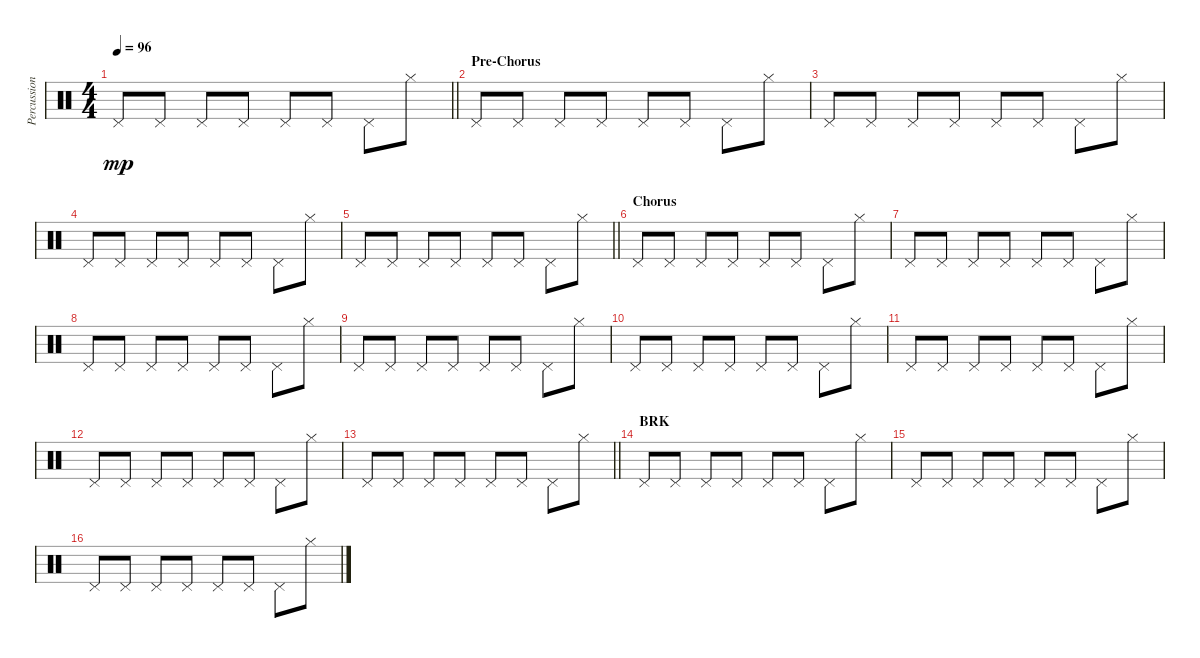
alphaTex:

\track ("Percussion" "Percussion") {instrument percussion}
\staff {score}
\articulation defaults
\ts (4 4)
\tempo 96
\clef neutral
\barLineRight lightlight
\ks c "Pedal Hi-Hat (hit)".8{dy mp} "Pedal Hi-Hat (hit)".8 "Pedal Hi-Hat (hit)".8 "Pedal Hi-Hat (hit)".8 "Pedal Hi-Hat (hit)".8 "Pedal Hi-Hat (hit)".8 "Pedal Hi-Hat (hit)".8 "Hi-Hat (closed)".8
|
\section ("" "Pre-Chorus")
"Pedal Hi-Hat (hit)".8 "Pedal Hi-Hat (hit)".8 "Pedal Hi-Hat (hit)".8 "Pedal Hi-Hat (hit)".8 "Pedal Hi-Hat (hit)".8 "Pedal Hi-Hat (hit)".8 "Pedal Hi-Hat (hit)".8 "Hi-Hat (closed)".8 |
"Pedal Hi-Hat (hit)".8 "Pedal Hi-Hat (hit)".8 "Pedal Hi-Hat (hit)".8 "Pedal Hi-Hat (hit)".8 "Pedal Hi-Hat (hit)".8 "Pedal Hi-Hat (hit)".8 "Pedal Hi-Hat (hit)".8 "Hi-Hat (closed)".8 |
"Pedal Hi-Hat (hit)".8 "Pedal Hi-Hat (hit)".8 "Pedal Hi-Hat (hit)".8 "Pedal Hi-Hat (hit)".8 "Pedal Hi-Hat (hit)".8 "Pedal Hi-Hat (hit)".8 "Pedal Hi-Hat (hit)".8 "Hi-Hat (closed)".8 |
\barLineRight lightlight "Pedal Hi-Hat (hit)".8 "Pedal Hi-Hat (hit)".8 "Pedal Hi-Hat (hit)".8 "Pedal Hi-Hat (hit)".8 "Pedal Hi-Hat (hit)".8 "Pedal Hi-Hat (hit)".8 "Pedal Hi-Hat (hit)".8 "Hi-Hat (closed)".8
|
\section ("" "Chorus")
"Pedal Hi-Hat (hit)".8 "Pedal Hi-Hat (hit)".8 "Pedal Hi-Hat (hit)".8 "Pedal Hi-Hat (hit)".8 "Pedal Hi-Hat (hit)".8 "Pedal Hi-Hat (hit)".8 "Pedal Hi-Hat (hit)".8 "Hi-Hat (closed)".8 |
"Pedal Hi-Hat (hit)".8 "Pedal Hi-Hat (hit)".8 "Pedal Hi-Hat (hit)".8 "Pedal Hi-Hat (hit)".8 "Pedal Hi-Hat (hit)".8 "Pedal Hi-Hat (hit)".8 "Pedal Hi-Hat (hit)".8 "Hi-Hat (closed)".8 |
"Pedal Hi-Hat (hit)".8 "Pedal Hi-Hat (hit)".8 "Pedal Hi-Hat (hit)".8 "Pedal Hi-Hat (hit)".8 "Pedal Hi-Hat (hit)".8 "Pedal Hi-Hat (hit)".8 "Pedal Hi-Hat (hit)".8 "Hi-Hat (closed)".8 |
"Pedal Hi-Hat (hit)".8 "Pedal Hi-Hat (hit)".8 "Pedal Hi-Hat (hit)".8 "Pedal Hi-Hat (hit)".8 "Pedal Hi-Hat (hit)".8 "Pedal Hi-Hat (hit)".8 "Pedal Hi-Hat (hit)".8 "Hi-Hat (closed)".8 |
"Pedal Hi-Hat (hit)".8 "Pedal Hi-Hat (hit)".8 "Pedal Hi-Hat (hit)".8 "Pedal Hi-Hat (hit)".8 "Pedal Hi-Hat (hit)".8 "Pedal Hi-Hat (hit)".8 "Pedal Hi-Hat (hit)".8 "Hi-Hat (closed)".8 |
"Pedal Hi-Hat (hit)".8 "Pedal Hi-Hat (hit)".8 "Pedal Hi-Hat (hit)".8 "Pedal Hi-Hat (hit)".8 "Pedal Hi-Hat (hit)".8 "Pedal Hi-Hat (hit)".8 "Pedal Hi-Hat (hit)".8 "Hi-Hat (closed)".8 |
"Pedal Hi-Hat (hit)".8 "Pedal Hi-Hat (hit)".8 "Pedal Hi-Hat (hit)".8 "Pedal Hi-Hat (hit)".8 "Pedal Hi-Hat (hit)".8 "Pedal Hi-Hat (hit)".8 "Pedal Hi-Hat (hit)".8 "Hi-Hat (closed)".8 |
\barLineRight lightlight "Pedal Hi-Hat (hit)".8 "Pedal Hi-Hat (hit)".8 "Pedal Hi-Hat (hit)".8 "Pedal Hi-Hat (hit)".8 "Pedal Hi-Hat (hit)".8 "Pedal Hi-Hat (hit)".8 "Pedal Hi-Hat (hit)".8 "Hi-Hat (closed)".8
|
\section ("" "BRK")
"Pedal Hi-Hat (hit)".8 "Pedal Hi-Hat (hit)".8 "Pedal Hi-Hat (hit)".8 "Pedal Hi-Hat (hit)".8 "Pedal Hi-Hat (hit)".8 "Pedal Hi-Hat (hit)".8 "Pedal Hi-Hat (hit)".8 "Hi-Hat (closed)".8 |
"Pedal Hi-Hat (hit)".8 "Pedal Hi-Hat (hit)".8 "Pedal Hi-Hat (hit)".8 "Pedal Hi-Hat (hit)".8 "Pedal Hi-Hat (hit)".8 "Pedal Hi-Hat (hit)".8 "Pedal Hi-Hat (hit)".8 "Hi-Hat (closed)".8 |
"Pedal Hi-Hat (hit)".8 "Pedal Hi-Hat (hit)".8 "Pedal Hi-Hat (hit)".8 "Pedal Hi-Hat (hit)".8 "Pedal Hi-Hat (hit)".8 "Pedal Hi-Hat (hit)".8 "Pedal Hi-Hat (hit)".8 "Hi-Hat (closed)".8
